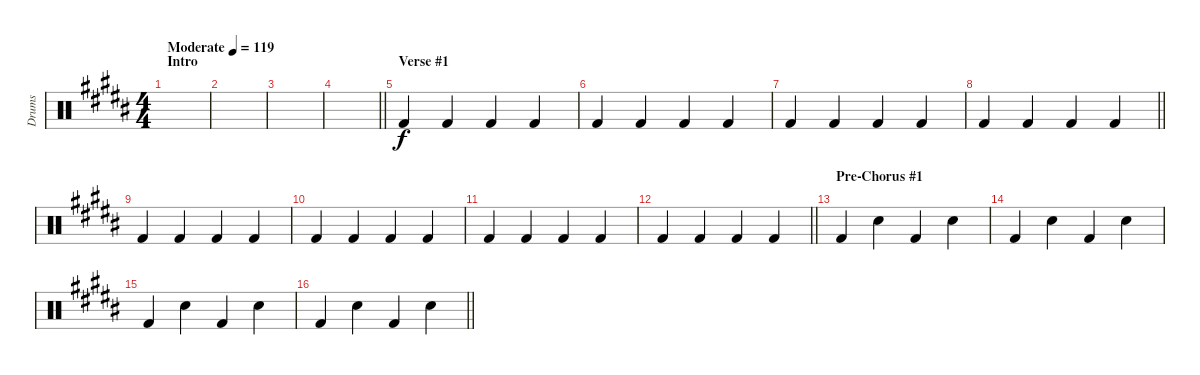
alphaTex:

\track ("Drums" "Drums") {instrument percussion}
\staff {score}
\articulation defaults
\ts (4 4)
\section ("" "Intro")
\tempo (119 "Moderate")
\clef neutral
\ks b
|
|
|
\barLineRight lightlight
|
\section ("" "Verse #1")
"Kick (hit) 2".4 "Kick (hit) 2".4 "Kick (hit) 2".4 "Kick (hit) 2".4 |
"Kick (hit) 2".4 "Kick (hit) 2".4 "Kick (hit) 2".4 "Kick (hit) 2".4 |
"Kick (hit) 2".4 "Kick (hit) 2".4 "Kick (hit) 2".4 "Kick (hit) 2".4 |
\barLineRight lightlight "Kick (hit) 2".4 "Kick (hit) 2".4 "Kick (hit) 2".4 "Kick (hit) 2".4
|
"Kick (hit) 2".4 "Kick (hit) 2".4 "Kick (hit) 2".4 "Kick (hit) 2".4 |
"Kick (hit) 2".4 "Kick (hit) 2".4 "Kick (hit) 2".4 "Kick (hit) 2".4 |
"Kick (hit) 2".4 "Kick (hit) 2".4 "Kick (hit) 2".4 "Kick (hit) 2".4 |
\barLineRight lightlight "Kick (hit) 2".4 "Kick (hit) 2".4 "Kick (hit) 2".4 "Kick (hit) 2".4
|
\section ("" "Pre-Chorus #1")
"Kick (hit) 2".4 "Snare (hit) 2".4 "Kick (hit) 2".4 "Snare (hit) 2".4 |
"Kick (hit) 2".4 "Snare (hit) 2".4 "Kick (hit) 2".4 "Snare (hit) 2".4 |
"Kick (hit) 2".4 "Snare (hit) 2".4 "Kick (hit) 2".4 "Snare (hit) 2".4 |
\barLineRight lightlight "Kick (hit) 2".4 "Snare (hit) 2".4 "Kick (hit) 2".4 "Snare (hit) 2".4
